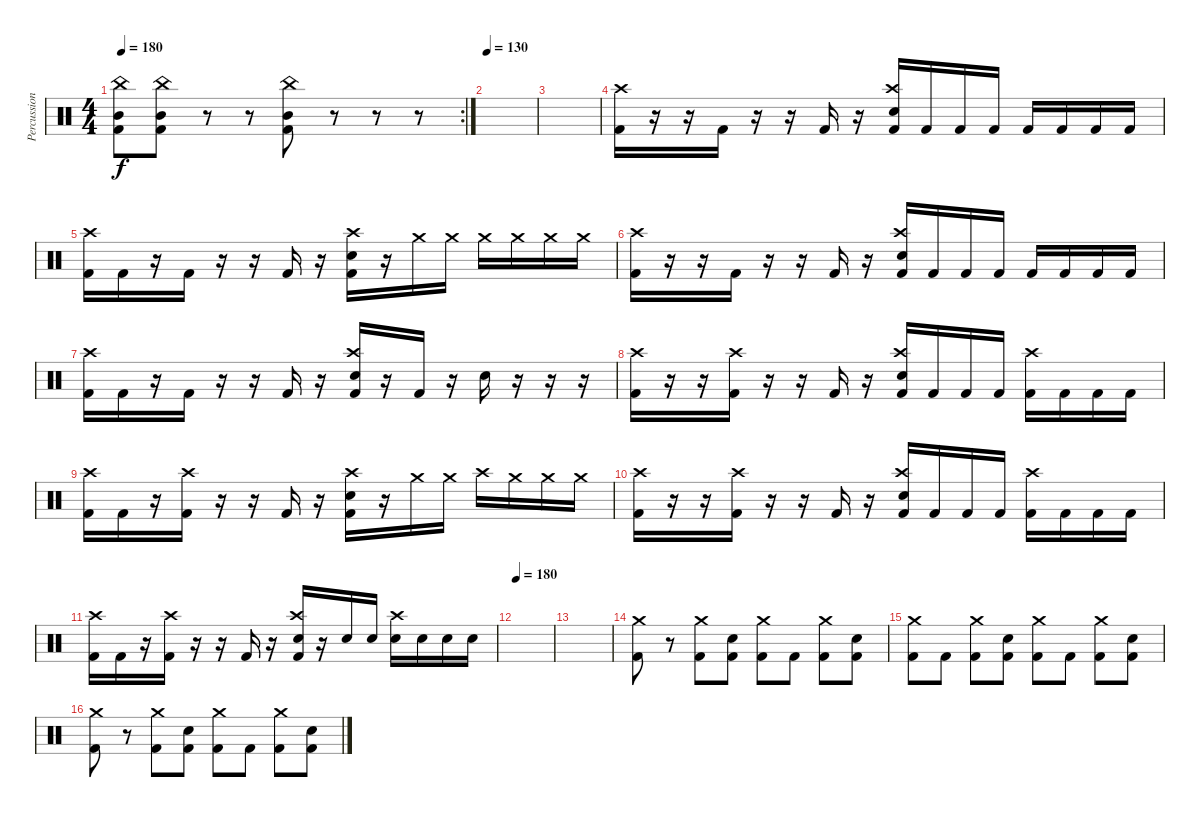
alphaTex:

\track ("Percussion" "Percussion") {instrument percussion}
\staff {score}
\articulation defaults
\rc 2
\ts (4 4)
\tempo 180
\clef neutral
\ks c
("China (hit)" "Mid Tom (hit)" "Kick (hit) 2").8{dy f} ("China (hit)" "Mid Tom (hit)" "Kick (hit) 2").8 r.8 r.8 ("China (hit)" "Mid Tom (hit)" "Kick (hit) 2").8 r.8 r.8 r.8 |
\tempo 130
|
|
("Crash high (hit)" "Kick (hit) 2").16 r.16 r.16 "Kick (hit) 2".16 r.16 r.16 "Kick (hit) 2".16 r.16 ("Crash high (hit)" "Electric Snare (hit)" "Kick (hit) 2").16 "Kick (hit) 2".16 "Kick (hit) 2".16 "Kick (hit) 2".16 "Kick (hit) 2".16 "Kick (hit) 2".16 "Kick (hit) 2".16 "Kick (hit) 2".16 |
("Crash high (hit)" "Kick (hit) 2").16 "Kick (hit) 2".16 r.16 "Kick (hit) 2".16 r.16 r.16 "Kick (hit) 2".16 r.16 ("Crash high (hit)" "Electric Snare (hit)" "Kick (hit) 2").16 r.16 "Crash medium (hit)".16 "Crash medium (hit)".16 "Crash medium (hit)".16 "Crash medium (hit)".16 "Crash medium (hit)".16 "Crash medium (hit)".16 |
("Crash high (hit)" "Kick (hit) 2").16 r.16 r.16 "Kick (hit) 2".16 r.16 r.16 "Kick (hit) 2".16 r.16 ("Crash high (hit)" "Electric Snare (hit)" "Kick (hit) 2").16 "Kick (hit) 2".16 "Kick (hit) 2".16 "Kick (hit) 2".16 "Kick (hit) 2".16 "Kick (hit) 2".16 "Kick (hit) 2".16 "Kick (hit) 2".16 |
("Crash high (hit)" "Kick (hit) 2").16 "Kick (hit) 2".16 r.16 "Kick (hit) 2".16 r.16 r.16 "Kick (hit) 2".16 r.16 ("Crash high (hit)" "Electric Snare (hit)" "Kick (hit) 2").16 r.16 "Kick (hit) 2".16 r.16 "Electric Snare (hit)".16 r.16 r.16 r.16 |
("Crash high (hit)" "Kick (hit) 2").16 r.16 r.16 ("Crash high (hit)" "Kick (hit) 2").16 r.16 r.16 "Kick (hit) 2".16 r.16 ("Crash high (hit)" "Electric Snare (hit)" "Kick (hit) 2").16 "Kick (hit) 2".16 "Kick (hit) 2".16 "Kick (hit) 2".16 ("Crash high (hit)" "Kick (hit) 2").16 "Kick (hit) 2".16 "Kick (hit) 2".16 "Kick (hit) 2".16 |
("Crash high (hit)" "Kick (hit) 2").16 "Kick (hit) 2".16 r.16 ("Crash high (hit)" "Kick (hit) 2").16 r.16 r.16 "Kick (hit) 2".16 r.16 ("Crash high (hit)" "Electric Snare (hit)" "Kick (hit) 2").16 r.16 "Crash medium (hit)".16 "Crash medium (hit)".16 "Crash high (hit)".16 "Crash medium (hit)".16 "Crash medium (hit)".16 "Crash medium (hit)".16 |
("Crash high (hit)" "Kick (hit) 2").16 r.16 r.16 ("Crash high (hit)" "Kick (hit) 2").16 r.16 r.16 "Kick (hit) 2".16 r.16 ("Crash high (hit)" "Electric Snare (hit)" "Kick (hit) 2").16 "Kick (hit) 2".16 "Kick (hit) 2".16 "Kick (hit) 2".16 ("Crash high (hit)" "Kick (hit) 2").16 "Kick (hit) 2".16 "Kick (hit) 2".16 "Kick (hit) 2".16 |
("Crash high (hit)" "Kick (hit) 2").16 "Kick (hit) 2".16 r.16 ("Crash high (hit)" "Kick (hit) 2").16 r.16 r.16 "Kick (hit) 2".16 r.16 ("Crash high (hit)" "Electric Snare (hit)" "Kick (hit) 2").16 r.16 "Electric Snare (hit)".16 "Electric Snare (hit)".16 ("Crash high (hit)" "Electric Snare (hit)").16 "Electric Snare (hit)".16 "Electric Snare (hit)".16 "Electric Snare (hit)".16 |
\tempo 180
|
|
("Crash medium (hit)" "Kick (hit) 2").8 r.8 ("Crash medium (hit)" "Kick (hit) 2").8 ("Electric Snare (hit)" "Kick (hit) 2").8 ("Crash medium (hit)" "Kick (hit) 2").8 "Kick (hit) 2".8 ("Crash medium (hit)" "Kick (hit) 2").8 ("Electric Snare (hit)" "Kick (hit) 2").8 |
("Crash medium (hit)" "Kick (hit) 2").8 "Kick (hit) 2".8 ("Crash medium (hit)" "Kick (hit) 2").8 ("Electric Snare (hit)" "Kick (hit) 2").8 ("Crash medium (hit)" "Kick (hit) 2").8 "Kick (hit) 2".8 ("Crash medium (hit)" "Kick (hit) 2").8 ("Electric Snare (hit)" "Kick (hit) 2").8 |
("Crash medium (hit)" "Kick (hit) 2").8 r.8 ("Crash medium (hit)" "Kick (hit) 2").8 ("Electric Snare (hit)" "Kick (hit) 2").8 ("Crash medium (hit)" "Kick (hit) 2").8 "Kick (hit) 2".8 ("Crash medium (hit)" "Kick (hit) 2").8 ("Electric Snare (hit)" "Kick (hit) 2").8
